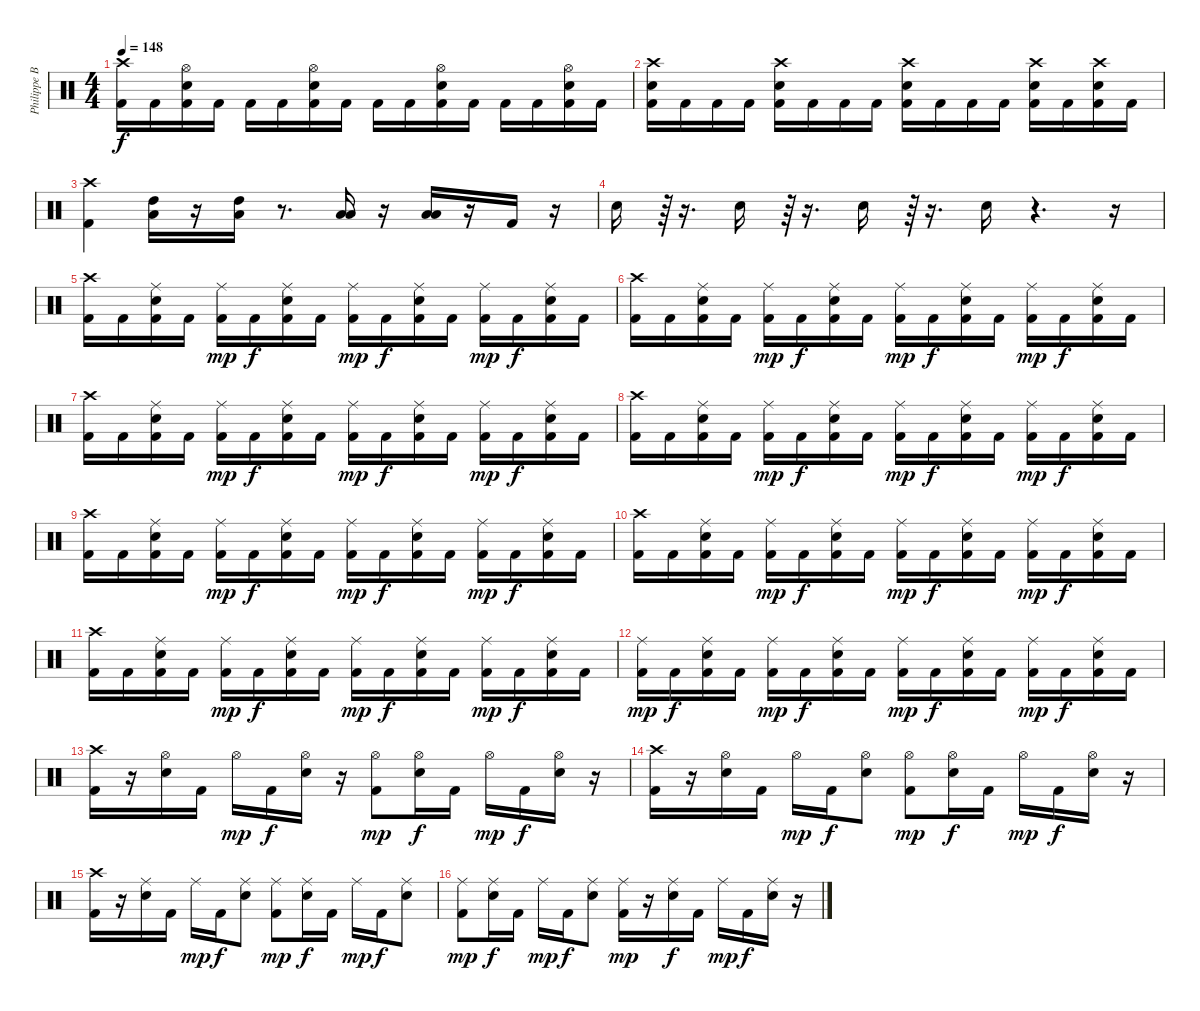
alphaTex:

\track ("Philippe Borda" "Philippe B") {instrument percussion}
\staff {score}
\articulation defaults
\ts (4 4)
\tempo 148
\clef neutral
\ks c
("Crash high (hit)" "Kick (hit) 2").16{dy f} "Kick (hit) 2".16 ("Kick (hit) 2" "Snare (hit) 2" "Hi-Hat (open)").16 "Kick (hit) 2".16 "Kick (hit) 2".16 "Kick (hit) 2".16 ("Kick (hit) 2" "Snare (hit) 2" "Hi-Hat (open)").16 "Kick (hit) 2".16 "Kick (hit) 2".16 "Kick (hit) 2".16 ("Kick (hit) 2" "Snare (hit) 2" "Hi-Hat (open)").16 "Kick (hit) 2".16 "Kick (hit) 2".16 "Kick (hit) 2".16 ("Kick (hit) 2" "Snare (hit) 2" "Hi-Hat (open)").16 "Kick (hit) 2".16 |
("Crash high (hit)" "Kick (hit) 2" "Snare (hit) 2").16 "Kick (hit) 2".16 "Kick (hit) 2".16 "Kick (hit) 2".16 ("Crash high (hit)" "Kick (hit) 2" "Snare (hit) 2").16 "Kick (hit) 2".16 "Kick (hit) 2".16 "Kick (hit) 2".16 ("Crash high (hit)" "Kick (hit) 2" "Snare (hit) 2").16 "Kick (hit) 2".16 "Kick (hit) 2".16 "Kick (hit) 2".16 ("Crash high (hit)" "Kick (hit) 2" "Snare (hit) 2").16 "Kick (hit) 2".16 ("Crash high (hit)" "Kick (hit) 2" "Snare (hit) 2").16 "Kick (hit) 2".16 |
("Crash high (hit)" "Kick (hit) 2").4 ("Low Tom (hit)" "High Tom (hit)").16 r.16 ("Low Tom (hit)" "High Tom (hit)").16 r.8{d} ("Low Floor Tom (hit)" "Low Tom (hit)").16 r.16 ("Low Floor Tom (hit)" "Low Tom (hit)").16 r.16 "Kick (hit) 2".16 r.16 |
"Snare (hit) 2".16 r.64{tu (3 2)} r.16{d} "Snare (hit) 2".16 r.64{tu (3 2)} r.16{d} "Snare (hit) 2".16 r.64{tu (3 2)} r.16{d} "Snare (hit) 2".16 r.4{d} r.16 |
("Crash high (hit)" "Kick (hit) 2").16 "Kick (hit) 2".16 ("Kick (hit) 2" "Snare (hit) 2" "Ride (middle)").16 "Kick (hit) 2".16 ("Kick (hit) 2" "Ride (middle)").16{dy mp} "Kick (hit) 2".16{dy f} ("Kick (hit) 2" "Ride (middle)" "Snare (hit) 2").16 "Kick (hit) 2".16 ("Kick (hit) 2" "Ride (middle)").16{dy mp} "Kick (hit) 2".16{dy f} ("Kick (hit) 2" "Ride (middle)" "Snare (hit) 2").16 "Kick (hit) 2".16 ("Kick (hit) 2" "Ride (middle)").16{dy mp} "Kick (hit) 2".16{dy f} ("Kick (hit) 2" "Ride (middle)" "Snare (hit) 2").16 "Kick (hit) 2".16 |
("Crash high (hit)" "Kick (hit) 2").16 "Kick (hit) 2".16 ("Kick (hit) 2" "Snare (hit) 2" "Ride (middle)").16 "Kick (hit) 2".16 ("Kick (hit) 2" "Ride (middle)").16{dy mp} "Kick (hit) 2".16{dy f} ("Kick (hit) 2" "Snare (hit) 2" "Ride (middle)").16 "Kick (hit) 2".16 ("Kick (hit) 2" "Ride (middle)").16{dy mp} "Kick (hit) 2".16{dy f} ("Kick (hit) 2" "Snare (hit) 2" "Ride (middle)").16 "Kick (hit) 2".16 ("Kick (hit) 2" "Ride (middle)").16{dy mp} "Kick (hit) 2".16{dy f} ("Kick (hit) 2" "Snare (hit) 2" "Ride (middle)").16 "Kick (hit) 2".16 |
("Crash high (hit)" "Kick (hit) 2").16 "Kick (hit) 2".16 ("Kick (hit) 2" "Snare (hit) 2" "Ride (middle)").16 "Kick (hit) 2".16 ("Kick (hit) 2" "Ride (middle)").16{dy mp} "Kick (hit) 2".16{dy f} ("Kick (hit) 2" "Snare (hit) 2" "Ride (middle)").16 "Kick (hit) 2".16 ("Kick (hit) 2" "Ride (middle)").16{dy mp} "Kick (hit) 2".16{dy f} ("Kick (hit) 2" "Snare (hit) 2" "Ride (middle)").16 "Kick (hit) 2".16 ("Kick (hit) 2" "Ride (middle)").16{dy mp} "Kick (hit) 2".16{dy f} ("Kick (hit) 2" "Snare (hit) 2" "Ride (middle)").16 "Kick (hit) 2".16 |
("Crash high (hit)" "Kick (hit) 2").16 "Kick (hit) 2".16 ("Kick (hit) 2" "Snare (hit) 2" "Ride (middle)").16 "Kick (hit) 2".16 ("Kick (hit) 2" "Ride (middle)").16{dy mp} "Kick (hit) 2".16{dy f} ("Kick (hit) 2" "Snare (hit) 2" "Ride (middle)").16 "Kick (hit) 2".16 ("Kick (hit) 2" "Ride (middle)").16{dy mp} "Kick (hit) 2".16{dy f} ("Kick (hit) 2" "Snare (hit) 2" "Ride (middle)").16 "Kick (hit) 2".16 ("Kick (hit) 2" "Ride (middle)").16{dy mp} "Kick (hit) 2".16{dy f} ("Kick (hit) 2" "Snare (hit) 2" "Ride (middle)").16 "Kick (hit) 2".16 |
("Crash high (hit)" "Kick (hit) 2").16 "Kick (hit) 2".16 ("Kick (hit) 2" "Snare (hit) 2" "Ride (middle)").16 "Kick (hit) 2".16 ("Kick (hit) 2" "Ride (middle)").16{dy mp} "Kick (hit) 2".16{dy f} ("Kick (hit) 2" "Snare (hit) 2" "Ride (middle)").16 "Kick (hit) 2".16 ("Kick (hit) 2" "Ride (middle)").16{dy mp} "Kick (hit) 2".16{dy f} ("Kick (hit) 2" "Snare (hit) 2" "Ride (middle)").16 "Kick (hit) 2".16 ("Kick (hit) 2" "Ride (middle)").16{dy mp} "Kick (hit) 2".16{dy f} ("Kick (hit) 2" "Snare (hit) 2" "Ride (middle)").16 "Kick (hit) 2".16 |
("Crash high (hit)" "Kick (hit) 2").16 "Kick (hit) 2".16 ("Kick (hit) 2" "Snare (hit) 2" "Ride (middle)").16 "Kick (hit) 2".16 ("Kick (hit) 2" "Ride (middle)").16{dy mp} "Kick (hit) 2".16{dy f} ("Kick (hit) 2" "Snare (hit) 2" "Ride (middle)").16 "Kick (hit) 2".16 ("Kick (hit) 2" "Ride (middle)").16{dy mp} "Kick (hit) 2".16{dy f} ("Kick (hit) 2" "Snare (hit) 2" "Ride (middle)").16 "Kick (hit) 2".16 ("Kick (hit) 2" "Ride (middle)").16{dy mp} "Kick (hit) 2".16{dy f} ("Kick (hit) 2" "Snare (hit) 2" "Ride (middle)").16 "Kick (hit) 2".16 |
("Crash high (hit)" "Kick (hit) 2").16 "Kick (hit) 2".16 ("Kick (hit) 2" "Snare (hit) 2" "Ride (middle)").16 "Kick (hit) 2".16 ("Kick (hit) 2" "Ride (middle)").16{dy mp} "Kick (hit) 2".16{dy f} ("Kick (hit) 2" "Snare (hit) 2" "Ride (middle)").16 "Kick (hit) 2".16 ("Kick (hit) 2" "Ride (middle)").16{dy mp} "Kick (hit) 2".16{dy f} ("Kick (hit) 2" "Snare (hit) 2" "Ride (middle)").16 "Kick (hit) 2".16 ("Kick (hit) 2" "Ride (middle)").16{dy mp} "Kick (hit) 2".16{dy f} ("Kick (hit) 2" "Snare (hit) 2" "Ride (middle)").16 "Kick (hit) 2".16 |
("Kick (hit) 2" "Ride (middle)").16{dy mp} "Kick (hit) 2".16{dy f} ("Kick (hit) 2" "Snare (hit) 2" "Ride (middle)").16 "Kick (hit) 2".16 ("Kick (hit) 2" "Ride (middle)").16{dy mp} "Kick (hit) 2".16{dy f} ("Kick (hit) 2" "Snare (hit) 2" "Ride (middle)").16 "Kick (hit) 2".16 ("Kick (hit) 2" "Ride (middle)").16{dy mp} "Kick (hit) 2".16{dy f} ("Kick (hit) 2" "Snare (hit) 2" "Ride (middle)").16 "Kick (hit) 2".16 ("Kick (hit) 2" "Ride (middle)").16{dy mp} "Kick (hit) 2".16{dy f} ("Kick (hit) 2" "Snare (hit) 2" "Ride (middle)").16 "Kick (hit) 2".16 |
("Crash high (hit)" "Kick (hit) 2").16 r.16 ("Hi-Hat (open)" "Snare (hit) 2").16 "Kick (hit) 2".16 "Hi-Hat (open)".16{dy mp} "Kick (hit) 2".16{dy f} ("Snare (hit) 2" "Hi-Hat (open)").16 r.16 ("Hi-Hat (open)" "Kick (hit) 2").8{dy mp} ("Hi-Hat (open)" "Snare (hit) 2").16{dy f} "Kick (hit) 2".16 "Hi-Hat (open)".16{dy mp} "Kick (hit) 2".16{dy f} ("Hi-Hat (open)" "Snare (hit) 2").16 r.16 |
("Crash high (hit)" "Kick (hit) 2").16 r.16 ("Snare (hit) 2" "Hi-Hat (open)").16 "Kick (hit) 2".16 "Hi-Hat (open)".16{dy mp} "Kick (hit) 2".16{dy f} ("Snare (hit) 2" "Hi-Hat (open)").8 ("Kick (hit) 2" "Hi-Hat (open)").8{dy mp} ("Snare (hit) 2" "Hi-Hat (open)").16{dy f} "Kick (hit) 2".16 "Hi-Hat (open)".16{dy mp} "Kick (hit) 2".16{dy f} ("Snare (hit) 2" "Hi-Hat (open)").16 r.16 |
("Crash high (hit)" "Kick (hit) 2").16 r.16 ("Ride (middle)" "Snare (hit) 2").16 "Kick (hit) 2".16 "Ride (middle)".16{dy mp} "Kick (hit) 2".16{dy f} ("Ride (middle)" "Snare (hit) 2").8 ("Ride (middle)" "Kick (hit) 2").8{dy mp} ("Ride (middle)" "Snare (hit) 2").16{dy f} "Kick (hit) 2".16 "Ride (middle)".16{dy mp} "Kick (hit) 2".16{dy f} ("Ride (middle)" "Snare (hit) 2").8 |
("Kick (hit) 2" "Ride (middle)").8{dy mp} ("Ride (middle)" "Snare (hit) 2").16{dy f} "Kick (hit) 2".16 "Ride (middle)".16{dy mp} "Kick (hit) 2".16{dy f} ("Ride (middle)" "Snare (hit) 2").8 ("Kick (hit) 2" "Ride (middle)").16{dy mp} r.16 ("Ride (middle)" "Snare (hit) 2").16{dy f} "Kick (hit) 2".16 "Ride (middle)".16{dy mp} "Kick (hit) 2".16{dy f} ("Ride (middle)" "Snare (hit) 2").16 r.16
